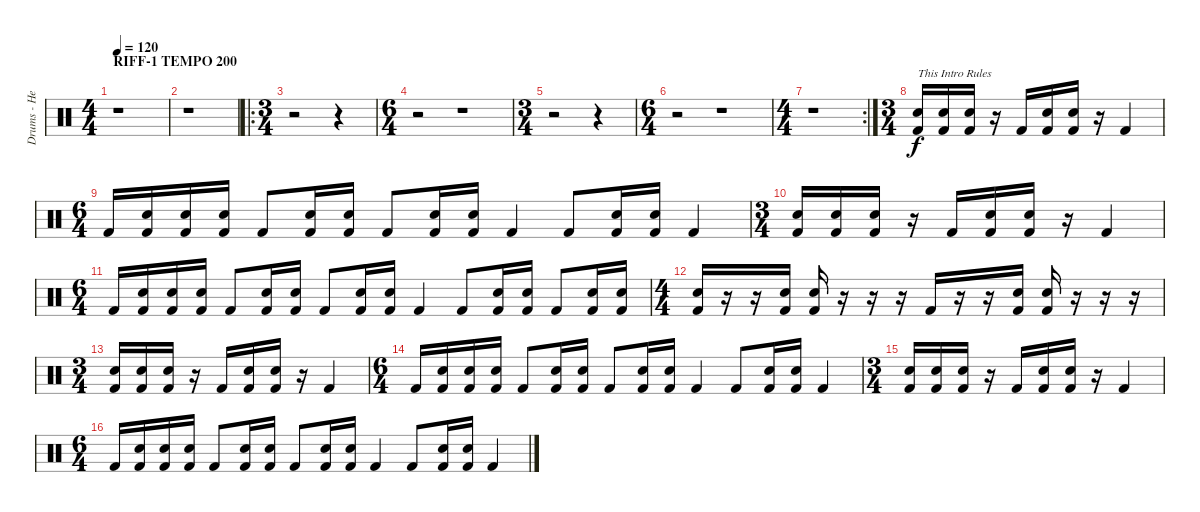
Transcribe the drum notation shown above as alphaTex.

\track ("Drums - Hellhammer" "Drums - He") {instrument percussion}
\staff {score}
\articulation defaults
\ts (4 4)
\section ("" "RIFF-1 TEMPO 200")
\tempo 120
\tempo 200
\tempo 120
\clef neutral
\ks c
r.1{dy f} |
r.1 |
\ro
\ts (3 4)
r.2 r.4 |
\ts (6 4)
r.2 r.1 |
\ts (3 4)
r.2 r.4 |
\ts (6 4)
r.2 r.1 |
\rc 2
\ts (4 4)
r.1 |
\ts (3 4)
("Electric Snare (hit)" "Kick (hit) 2").16{txt "This Intro Rules"} ("Electric Snare (hit)" "Kick (hit) 2").16 ("Electric Snare (hit)" "Kick (hit) 2").16 r.16 "Kick (hit) 2".16 ("Electric Snare (hit)" "Kick (hit) 2").16 ("Electric Snare (hit)" "Kick (hit) 2").16 r.16 "Kick (hit) 2".4 |
\ts (6 4)
"Kick (hit) 2".16 ("Electric Snare (hit)" "Kick (hit) 2").16 ("Electric Snare (hit)" "Kick (hit) 2").16 ("Electric Snare (hit)" "Kick (hit) 2").16 "Kick (hit) 2".8 ("Electric Snare (hit)" "Kick (hit) 2").16 ("Electric Snare (hit)" "Kick (hit) 2").16 "Kick (hit) 2".8 ("Electric Snare (hit)" "Kick (hit) 2").16 ("Electric Snare (hit)" "Kick (hit) 2").16 "Kick (hit) 2".4 "Kick (hit) 2".8 ("Electric Snare (hit)" "Kick (hit) 2").16 ("Electric Snare (hit)" "Kick (hit) 2").16 "Kick (hit) 2".4 |
\ts (3 4)
("Electric Snare (hit)" "Kick (hit) 2").16 ("Electric Snare (hit)" "Kick (hit) 2").16 ("Electric Snare (hit)" "Kick (hit) 2").16 r.16 "Kick (hit) 2".16 ("Electric Snare (hit)" "Kick (hit) 2").16 ("Electric Snare (hit)" "Kick (hit) 2").16 r.16 "Kick (hit) 2".4 |
\ts (6 4)
"Kick (hit) 2".16 ("Electric Snare (hit)" "Kick (hit) 2").16 ("Electric Snare (hit)" "Kick (hit) 2").16 ("Electric Snare (hit)" "Kick (hit) 2").16 "Kick (hit) 2".8 ("Electric Snare (hit)" "Kick (hit) 2").16 ("Electric Snare (hit)" "Kick (hit) 2").16 "Kick (hit) 2".8 ("Electric Snare (hit)" "Kick (hit) 2").16 ("Electric Snare (hit)" "Kick (hit) 2").16 "Kick (hit) 2".4 "Kick (hit) 2".8 ("Electric Snare (hit)" "Kick (hit) 2").16 ("Electric Snare (hit)" "Kick (hit) 2").16 "Kick (hit) 2".8 ("Electric Snare (hit)" "Kick (hit) 2").16 ("Electric Snare (hit)" "Kick (hit) 2").16 |
\ts (4 4)
("Electric Snare (hit)" "Kick (hit) 2").16 r.16 r.16 ("Electric Snare (hit)" "Kick (hit) 2").16 ("Electric Snare (hit)" "Kick (hit) 2").16 r.16 r.16 r.16 "Kick (hit) 2".16 r.16 r.16 ("Electric Snare (hit)" "Kick (hit) 2").16 ("Electric Snare (hit)" "Kick (hit) 2").16 r.16 r.16 r.16 |
\ts (3 4)
("Electric Snare (hit)" "Kick (hit) 2").16 ("Electric Snare (hit)" "Kick (hit) 2").16 ("Electric Snare (hit)" "Kick (hit) 2").16 r.16 "Kick (hit) 2".16 ("Electric Snare (hit)" "Kick (hit) 2").16 ("Electric Snare (hit)" "Kick (hit) 2").16 r.16 "Kick (hit) 2".4 |
\ts (6 4)
"Kick (hit) 2".16 ("Electric Snare (hit)" "Kick (hit) 2").16 ("Electric Snare (hit)" "Kick (hit) 2").16 ("Electric Snare (hit)" "Kick (hit) 2").16 "Kick (hit) 2".8 ("Electric Snare (hit)" "Kick (hit) 2").16 ("Electric Snare (hit)" "Kick (hit) 2").16 "Kick (hit) 2".8 ("Electric Snare (hit)" "Kick (hit) 2").16 ("Electric Snare (hit)" "Kick (hit) 2").16 "Kick (hit) 2".4 "Kick (hit) 2".8 ("Electric Snare (hit)" "Kick (hit) 2").16 ("Electric Snare (hit)" "Kick (hit) 2").16 "Kick (hit) 2".4 |
\ts (3 4)
("Electric Snare (hit)" "Kick (hit) 2").16 ("Electric Snare (hit)" "Kick (hit) 2").16 ("Electric Snare (hit)" "Kick (hit) 2").16 r.16 "Kick (hit) 2".16 ("Electric Snare (hit)" "Kick (hit) 2").16 ("Electric Snare (hit)" "Kick (hit) 2").16 r.16 "Kick (hit) 2".4 |
\ts (6 4)
"Kick (hit) 2".16 ("Electric Snare (hit)" "Kick (hit) 2").16 ("Electric Snare (hit)" "Kick (hit) 2").16 ("Electric Snare (hit)" "Kick (hit) 2").16 "Kick (hit) 2".8 ("Electric Snare (hit)" "Kick (hit) 2").16 ("Electric Snare (hit)" "Kick (hit) 2").16 "Kick (hit) 2".8 ("Electric Snare (hit)" "Kick (hit) 2").16 ("Electric Snare (hit)" "Kick (hit) 2").16 "Kick (hit) 2".4 "Kick (hit) 2".8 ("Electric Snare (hit)" "Kick (hit) 2").16 ("Electric Snare (hit)" "Kick (hit) 2").16 "Kick (hit) 2".4
